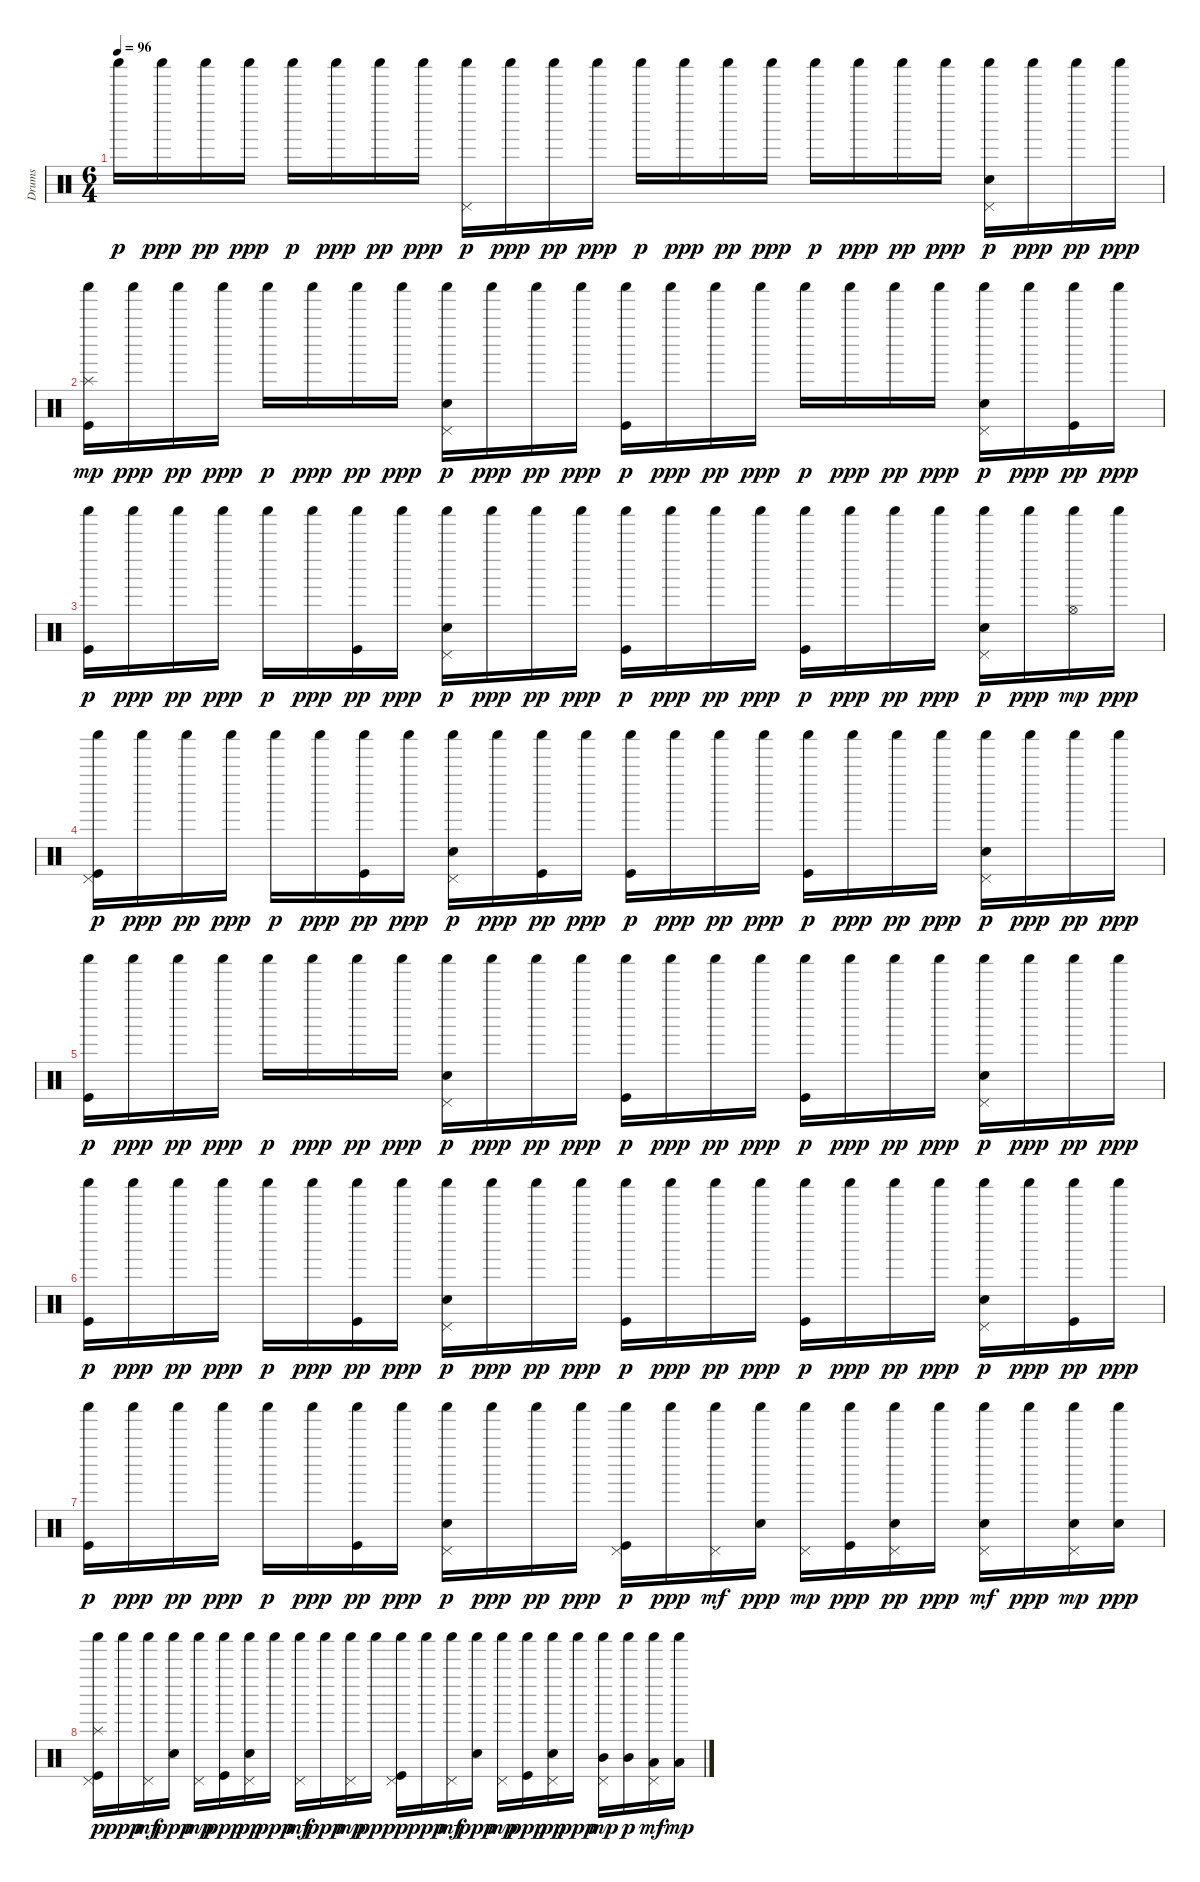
\track ("Drums" "Drums") {instrument percussion}
\staff {score}
\articulation defaults
\ts (6 4)
\tempo 96
\clef neutral
\ks c "Shaker (hit)".16{dy p} "Shaker (hit)".16{dy ppp} "Shaker (hit)".16{dy pp} "Shaker (hit)".16{dy ppp} "Shaker (hit)".16{dy p} "Shaker (hit)".16{dy ppp} "Shaker (hit)".16{dy pp} "Shaker (hit)".16{dy ppp}
("Shaker (hit)" "Pedal Hi-Hat (hit)").16{dy p} "Shaker (hit)".16{dy ppp} "Shaker (hit)".16{dy pp} "Shaker (hit)".16{dy ppp} "Shaker (hit)".16{dy p} "Shaker (hit)".16{dy ppp} "Shaker (hit)".16{dy pp} "Shaker (hit)".16{dy ppp} "Shaker (hit)".16{dy p} "Shaker (hit)".16{dy ppp} "Shaker (hit)".16{dy pp} "Shaker (hit)".16{dy ppp} ("Shaker (hit)" "Pedal Hi-Hat (hit)" "Hand Clap (hit)").16{dy p} "Shaker (hit)".16{dy ppp} "Shaker (hit)".16{dy pp} "Shaker (hit)".16{dy ppp} |
("Shaker (hit)" "Splash (hit)" "Kick (hit)").16{dy mp} "Shaker (hit)".16{dy ppp} "Shaker (hit)".16{dy pp} "Shaker (hit)".16{dy ppp} "Shaker (hit)".16{dy p} "Shaker (hit)".16{dy ppp} "Shaker (hit)".16{dy pp} "Shaker (hit)".16{dy ppp} ("Shaker (hit)" "Pedal Hi-Hat (hit)" "Hand Clap (hit)").16{dy p} "Shaker (hit)".16{dy ppp} "Shaker (hit)".16{dy pp} "Shaker (hit)".16{dy ppp} ("Shaker (hit)" "Kick (hit)").16{dy p} "Shaker (hit)".16{dy ppp} "Shaker (hit)".16{dy pp} "Shaker (hit)".16{dy ppp} "Shaker (hit)".16{dy p} "Shaker (hit)".16{dy ppp} "Shaker (hit)".16{dy pp} "Shaker (hit)".16{dy ppp} ("Shaker (hit)" "Pedal Hi-Hat (hit)" "Hand Clap (hit)").16{dy p} "Shaker (hit)".16{dy ppp} ("Shaker (hit)" "Kick (hit)").16{dy pp} "Shaker (hit)".16{dy ppp} |
("Shaker (hit)" "Kick (hit)").16{dy p} "Shaker (hit)".16{dy ppp} "Shaker (hit)".16{dy pp} "Shaker (hit)".16{dy ppp} "Shaker (hit)".16{dy p} "Shaker (hit)".16{dy ppp} ("Shaker (hit)" "Kick (hit)").16{dy pp} "Shaker (hit)".16{dy ppp} ("Shaker (hit)" "Pedal Hi-Hat (hit)" "Hand Clap (hit)").16{dy p} "Shaker (hit)".16{dy ppp} "Shaker (hit)".16{dy pp} "Shaker (hit)".16{dy ppp} ("Shaker (hit)" "Kick (hit)").16{dy p} "Shaker (hit)".16{dy ppp} "Shaker (hit)".16{dy pp} "Shaker (hit)".16{dy ppp} ("Shaker (hit)" "Kick (hit)").16{dy p} "Shaker (hit)".16{dy ppp} "Shaker (hit)".16{dy pp} "Shaker (hit)".16{dy ppp} ("Shaker (hit)" "Pedal Hi-Hat (hit)" "Hand Clap (hit)").16{dy p} "Shaker (hit)".16{dy ppp} ("Shaker (hit)" "Hi-Hat (open)").16{dy mp} "Shaker (hit)".16{dy ppp} |
("Shaker (hit)" "Pedal Hi-Hat (hit)" "Kick (hit)").16{dy p} "Shaker (hit)".16{dy ppp} "Shaker (hit)".16{dy pp} "Shaker (hit)".16{dy ppp} "Shaker (hit)".16{dy p} "Shaker (hit)".16{dy ppp} ("Shaker (hit)" "Kick (hit)").16{dy pp} "Shaker (hit)".16{dy ppp} ("Shaker (hit)" "Pedal Hi-Hat (hit)" "Hand Clap (hit)").16{dy p} "Shaker (hit)".16{dy ppp} ("Shaker (hit)" "Kick (hit)").16{dy pp} "Shaker (hit)".16{dy ppp} ("Shaker (hit)" "Kick (hit)").16{dy p} "Shaker (hit)".16{dy ppp} "Shaker (hit)".16{dy pp} "Shaker (hit)".16{dy ppp} ("Shaker (hit)" "Kick (hit)").16{dy p} "Shaker (hit)".16{dy ppp} "Shaker (hit)".16{dy pp} "Shaker (hit)".16{dy ppp} ("Shaker (hit)" "Pedal Hi-Hat (hit)" "Hand Clap (hit)").16{dy p} "Shaker (hit)".16{dy ppp} "Shaker (hit)".16{dy pp} "Shaker (hit)".16{dy ppp} |
("Shaker (hit)" "Kick (hit)").16{dy p} "Shaker (hit)".16{dy ppp} "Shaker (hit)".16{dy pp} "Shaker (hit)".16{dy ppp} "Shaker (hit)".16{dy p} "Shaker (hit)".16{dy ppp} "Shaker (hit)".16{dy pp} "Shaker (hit)".16{dy ppp} ("Shaker (hit)" "Pedal Hi-Hat (hit)" "Hand Clap (hit)").16{dy p} "Shaker (hit)".16{dy ppp} "Shaker (hit)".16{dy pp} "Shaker (hit)".16{dy ppp} ("Shaker (hit)" "Kick (hit)").16{dy p} "Shaker (hit)".16{dy ppp} "Shaker (hit)".16{dy pp} "Shaker (hit)".16{dy ppp} ("Shaker (hit)" "Kick (hit)").16{dy p} "Shaker (hit)".16{dy ppp} "Shaker (hit)".16{dy pp} "Shaker (hit)".16{dy ppp} ("Shaker (hit)" "Pedal Hi-Hat (hit)" "Hand Clap (hit)").16{dy p} "Shaker (hit)".16{dy ppp} "Shaker (hit)".16{dy pp} "Shaker (hit)".16{dy ppp} |
("Shaker (hit)" "Kick (hit)").16{dy p} "Shaker (hit)".16{dy ppp} "Shaker (hit)".16{dy pp} "Shaker (hit)".16{dy ppp} "Shaker (hit)".16{dy p} "Shaker (hit)".16{dy ppp} ("Shaker (hit)" "Kick (hit)").16{dy pp} "Shaker (hit)".16{dy ppp} ("Shaker (hit)" "Pedal Hi-Hat (hit)" "Hand Clap (hit)").16{dy p} "Shaker (hit)".16{dy ppp} "Shaker (hit)".16{dy pp} "Shaker (hit)".16{dy ppp} ("Shaker (hit)" "Kick (hit)").16{dy p} "Shaker (hit)".16{dy ppp} "Shaker (hit)".16{dy pp} "Shaker (hit)".16{dy ppp} ("Shaker (hit)" "Kick (hit)").16{dy p} "Shaker (hit)".16{dy ppp} "Shaker (hit)".16{dy pp} "Shaker (hit)".16{dy ppp} ("Shaker (hit)" "Pedal Hi-Hat (hit)" "Hand Clap (hit)").16{dy p} "Shaker (hit)".16{dy ppp} ("Shaker (hit)" "Kick (hit)").16{dy pp} "Shaker (hit)".16{dy ppp} |
("Shaker (hit)" "Kick (hit)").16{dy p} "Shaker (hit)".16{dy ppp} "Shaker (hit)".16{dy pp} "Shaker (hit)".16{dy ppp} "Shaker (hit)".16{dy p} "Shaker (hit)".16{dy ppp} ("Shaker (hit)" "Kick (hit)").16{dy pp} "Shaker (hit)".16{dy ppp} ("Shaker (hit)" "Pedal Hi-Hat (hit)" "Hand Clap (hit)").16{dy p} "Shaker (hit)".16{dy ppp} "Shaker (hit)".16{dy pp} "Shaker (hit)".16{dy ppp} ("Shaker (hit)" "Pedal Hi-Hat (hit)" "Kick (hit)").16{dy p} "Shaker (hit)".16{dy ppp} ("Shaker (hit)" "Pedal Hi-Hat (hit)").16{dy mf} ("Shaker (hit)" "Hand Clap (hit)").16{dy ppp} ("Shaker (hit)" "Pedal Hi-Hat (hit)").16{dy mp} ("Shaker (hit)" "Kick (hit)").16{dy ppp} ("Shaker (hit)" "Pedal Hi-Hat (hit)" "Hand Clap (hit)").16{dy pp} "Shaker (hit)".16{dy ppp} ("Shaker (hit)" "Pedal Hi-Hat (hit)" "Hand Clap (hit)").16{dy mf} "Shaker (hit)".16{dy ppp} ("Shaker (hit)" "Pedal Hi-Hat (hit)" "Hand Clap (hit)").16{dy mp} ("Shaker (hit)" "Hand Clap (hit)").16{dy ppp} |
("Shaker (hit)" "Pedal Hi-Hat (hit)" "Splash (hit)" "Kick (hit)").16{dy p} "Shaker (hit)".16{dy ppp} ("Shaker (hit)" "Pedal Hi-Hat (hit)").16{dy mf} ("Shaker (hit)" "Hand Clap (hit)").16{dy ppp} ("Shaker (hit)" "Pedal Hi-Hat (hit)").16{dy mp} ("Shaker (hit)" "Kick (hit)").16{dy ppp} ("Shaker (hit)" "Pedal Hi-Hat (hit)" "Hand Clap (hit)").16{dy pp} "Shaker (hit)".16{dy ppp} ("Shaker (hit)" "Pedal Hi-Hat (hit)").16{dy mf} "Shaker (hit)".16{dy ppp} ("Shaker (hit)" "Pedal Hi-Hat (hit)").16{dy mp} "Shaker (hit)".16{dy ppp} ("Shaker (hit)" "Pedal Hi-Hat (hit)" "Kick (hit)").16{dy p} "Shaker (hit)".16{dy ppp} ("Shaker (hit)" "Pedal Hi-Hat (hit)").16{dy mf} ("Shaker (hit)" "Hand Clap (hit)").16{dy ppp} ("Shaker (hit)" "Pedal Hi-Hat (hit)").16{dy mp} ("Shaker (hit)" "Kick (hit)").16{dy ppp} ("Shaker (hit)" "Pedal Hi-Hat (hit)" "Hand Clap (hit)").16{dy pp} "Shaker (hit)".16{dy ppp} ("Shaker (hit)" "Pedal Hi-Hat (hit)" "Mid Tom (hit)").16{dy mp} ("Shaker (hit)" "Mid Tom (hit)").16{dy p} ("Shaker (hit)" "Pedal Hi-Hat (hit)" "Low Tom (hit)").16{dy mf} ("Shaker (hit)" "Low Tom (hit)").16{dy mp}
